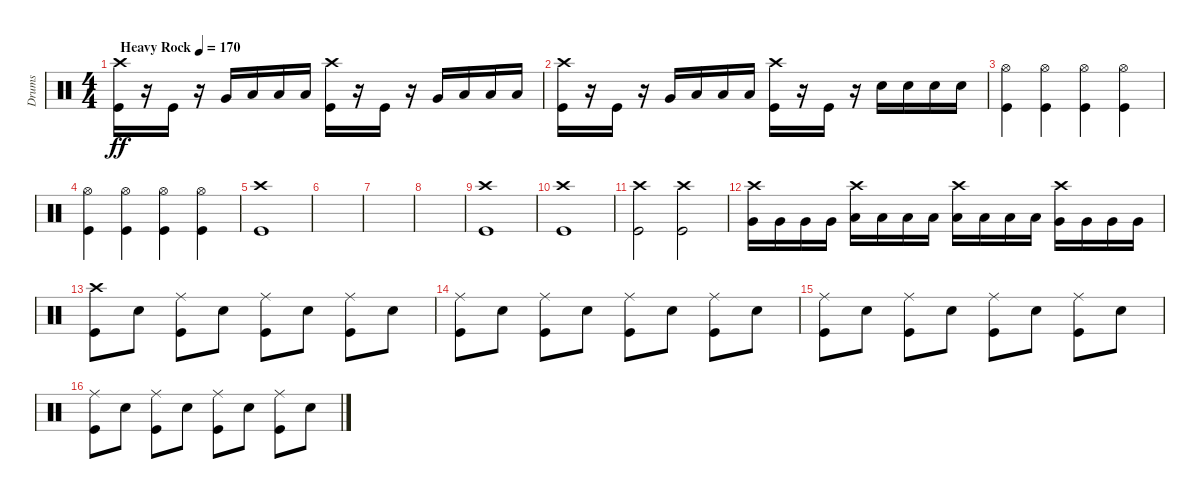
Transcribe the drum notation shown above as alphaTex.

\track ("Drums" "Drums") {instrument percussion}
\staff {score}
\articulation defaults
\ts (4 4)
\tempo (170 "Heavy Rock")
\clef neutral
\ks c
("Crash high (hit)" "Kick (hit)").16{dy ff} r.16 "Kick (hit)".16 r.16 "Very Low Tom (hit)".16 "Low Floor Tom (hit)".16 "Low Floor Tom (hit)".16 "Low Floor Tom (hit)".16 ("Crash high (hit)" "Kick (hit)").16 r.16 "Kick (hit)".16 r.16 "Very Low Tom (hit)".16 "Low Floor Tom (hit)".16 "Low Floor Tom (hit)".16 "Low Floor Tom (hit)".16 |
("Crash high (hit)" "Kick (hit)").16 r.16 "Kick (hit)".16 r.16 "Very Low Tom (hit)".16 "Low Floor Tom (hit)".16 "Low Floor Tom (hit)".16 "Low Floor Tom (hit)".16 ("Crash high (hit)" "Kick (hit)").16 r.16 "Kick (hit)".16 r.16 "Snare (hit) 2".16 "Snare (hit) 2".16 "Snare (hit) 2".16 "Snare (hit) 2".16 |
("Hi-Hat (open)" "Kick (hit)").4 ("Hi-Hat (open)" "Kick (hit)").4 ("Hi-Hat (open)" "Kick (hit)").4 ("Hi-Hat (open)" "Kick (hit)").4 |
("Hi-Hat (open)" "Kick (hit)").4 ("Hi-Hat (open)" "Kick (hit)").4 ("Hi-Hat (open)" "Kick (hit)").4 ("Hi-Hat (open)" "Kick (hit)").4 |
("Crash high (hit)" "Kick (hit)").1 |
|
|
|
("Crash high (hit)" "Kick (hit)").1 |
("Crash high (hit)" "Kick (hit)").1 |
("Crash high (hit)" "Kick (hit)").2 ("Crash high (hit)" "Kick (hit)").2 |
("Crash high (hit)" "Very Low Tom (hit)").16 "Very Low Tom (hit)".16 "Very Low Tom (hit)".16 "Very Low Tom (hit)".16 ("Crash high (hit)" "Low Floor Tom (hit)").16 "Low Floor Tom (hit)".16 "Low Floor Tom (hit)".16 "Low Floor Tom (hit)".16 ("Crash high (hit)" "Low Floor Tom (hit)").16 "Low Floor Tom (hit)".16 "Low Floor Tom (hit)".16 "Low Floor Tom (hit)".16 ("Crash high (hit)" "Very Low Tom (hit)").16 "Very Low Tom (hit)".16 "Very Low Tom (hit)".16 "Very Low Tom (hit)".16 |
("Crash high (hit)" "Kick (hit)").8 "Snare (hit) 2".8 ("Ride (middle)" "Kick (hit)").8 "Snare (hit) 2".8 ("Ride (middle)" "Kick (hit)").8 "Snare (hit) 2".8 ("Ride (middle)" "Kick (hit)").8 "Snare (hit) 2".8 |
("Ride (middle)" "Kick (hit)").8 "Snare (hit) 2".8 ("Ride (middle)" "Kick (hit)").8 "Snare (hit) 2".8 ("Ride (middle)" "Kick (hit)").8 "Snare (hit) 2".8 ("Ride (middle)" "Kick (hit)").8 "Snare (hit) 2".8 |
("Ride (middle)" "Kick (hit)").8 "Snare (hit) 2".8 ("Ride (middle)" "Kick (hit)").8 "Snare (hit) 2".8 ("Ride (middle)" "Kick (hit)").8 "Snare (hit) 2".8 ("Ride (middle)" "Kick (hit)").8 "Snare (hit) 2".8 |
("Ride (middle)" "Kick (hit)").8 "Snare (hit) 2".8 ("Ride (middle)" "Kick (hit)").8 "Snare (hit) 2".8 ("Ride (middle)" "Kick (hit)").8 "Snare (hit) 2".8 ("Ride (middle)" "Kick (hit)").8 "Snare (hit) 2".8
